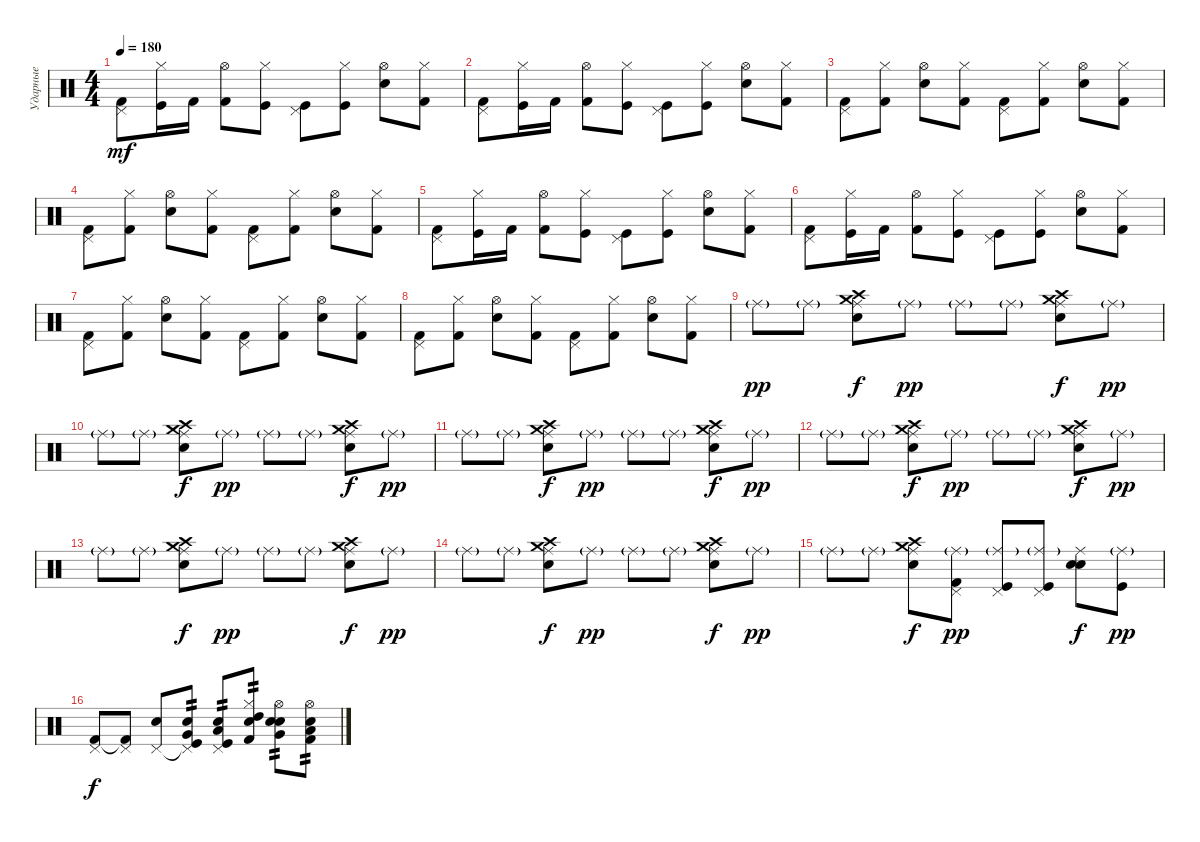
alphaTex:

\track ("Ударные" "Ударные") {instrument percussion}
\staff {score}
\articulation defaults
\ts (4 4)
\tempo 180
\clef neutral
\ks c
("Kick (hit) 2" "Pedal Hi-Hat (hit)").8{dy mf} ("Hi-Hat (closed)" "Kick (hit)").16 "Kick (hit) 2".16 ("Kick (hit) 2" "Hi-Hat (open)").8 ("Kick (hit)" "Hi-Hat (closed)").8 ("Pedal Hi-Hat (hit)" "Kick (hit)").8 ("Hi-Hat (closed)" "Kick (hit)").8 ("Hi-Hat (open)" "Snare (hit) 2").8 ("Kick (hit) 2" "Hi-Hat (closed)").8 |
("Kick (hit) 2" "Pedal Hi-Hat (hit)").8 ("Hi-Hat (closed)" "Kick (hit)").16 "Kick (hit) 2".16 ("Kick (hit) 2" "Hi-Hat (open)").8 ("Kick (hit)" "Hi-Hat (closed)").8 ("Pedal Hi-Hat (hit)" "Kick (hit)").8 ("Hi-Hat (closed)" "Kick (hit)").8 ("Hi-Hat (open)" "Snare (hit) 2").8 ("Kick (hit) 2" "Hi-Hat (closed)").8 |
("Kick (hit) 2" "Pedal Hi-Hat (hit)").8 ("Hi-Hat (closed)" "Kick (hit) 2").8 ("Snare (hit) 2" "Hi-Hat (open)").8 ("Kick (hit) 2" "Hi-Hat (closed)").8 ("Kick (hit) 2" "Pedal Hi-Hat (hit)").8 ("Hi-Hat (closed)" "Kick (hit) 2").8 ("Snare (hit) 2" "Hi-Hat (open)").8 ("Hi-Hat (closed)" "Kick (hit) 2").8 |
("Pedal Hi-Hat (hit)" "Kick (hit) 2").8 ("Hi-Hat (closed)" "Kick (hit) 2").8 ("Hi-Hat (open)" "Snare (hit) 2").8 ("Hi-Hat (closed)" "Kick (hit) 2").8 ("Kick (hit) 2" "Pedal Hi-Hat (hit)").8 ("Hi-Hat (closed)" "Kick (hit) 2").8 ("Hi-Hat (open)" "Snare (hit) 2").8 ("Kick (hit) 2" "Hi-Hat (closed)").8 |
("Kick (hit) 2" "Pedal Hi-Hat (hit)").8 ("Hi-Hat (closed)" "Kick (hit)").16 "Kick (hit) 2".16 ("Kick (hit) 2" "Hi-Hat (open)").8 ("Kick (hit)" "Hi-Hat (closed)").8 ("Pedal Hi-Hat (hit)" "Kick (hit)").8 ("Hi-Hat (closed)" "Kick (hit)").8 ("Hi-Hat (open)" "Snare (hit) 2").8 ("Kick (hit) 2" "Hi-Hat (closed)").8 |
("Kick (hit) 2" "Pedal Hi-Hat (hit)").8 ("Hi-Hat (closed)" "Kick (hit)").16 "Kick (hit) 2".16 ("Kick (hit) 2" "Hi-Hat (open)").8 ("Kick (hit)" "Hi-Hat (closed)").8 ("Pedal Hi-Hat (hit)" "Kick (hit)").8 ("Hi-Hat (closed)" "Kick (hit)").8 ("Hi-Hat (open)" "Snare (hit) 2").8 ("Kick (hit) 2" "Hi-Hat (closed)").8 |
("Kick (hit) 2" "Pedal Hi-Hat (hit)").8 ("Hi-Hat (closed)" "Kick (hit) 2").8 ("Snare (hit) 2" "Hi-Hat (open)").8 ("Kick (hit) 2" "Hi-Hat (closed)").8 ("Kick (hit) 2" "Pedal Hi-Hat (hit)").8 ("Hi-Hat (closed)" "Kick (hit) 2").8 ("Snare (hit) 2" "Hi-Hat (open)").8 ("Hi-Hat (closed)" "Kick (hit) 2").8 |
("Pedal Hi-Hat (hit)" "Kick (hit) 2").8 ("Hi-Hat (closed)" "Kick (hit) 2").8 ("Hi-Hat (open)" "Snare (hit) 2").8 ("Hi-Hat (closed)" "Kick (hit) 2").8 ("Kick (hit) 2" "Pedal Hi-Hat (hit)").8 ("Hi-Hat (closed)" "Kick (hit) 2").8 ("Hi-Hat (open)" "Snare (hit) 2").8 ("Kick (hit) 2" "Hi-Hat (closed)").8 |
"Ride (middle)"{g}.8{dy pp} "Ride (middle)"{g}.8 ("Ride (middle)" "Electric Snare (hit)" "Crash medium (hit)" "Crash high (hit)").8{dy f} "Ride (middle)"{g}.8{dy pp} "Ride (middle)"{g}.8 "Ride (middle)"{g}.8 ("Ride (middle)" "Electric Snare (hit)" "Crash medium (hit)" "Crash high (hit)").8{dy f} "Ride (middle)"{g}.8{dy pp} |
"Ride (middle)"{g}.8 "Ride (middle)"{g}.8 ("Ride (middle)" "Electric Snare (hit)" "Crash medium (hit)" "Crash high (hit)").8{dy f} "Ride (middle)"{g}.8{dy pp} "Ride (middle)"{g}.8 "Ride (middle)"{g}.8 ("Ride (middle)" "Electric Snare (hit)" "Crash medium (hit)" "Crash high (hit)").8{dy f} "Ride (middle)"{g}.8{dy pp} |
"Ride (middle)"{g}.8 "Ride (middle)"{g}.8 ("Ride (middle)" "Electric Snare (hit)" "Crash medium (hit)" "Crash high (hit)").8{dy f} "Ride (middle)"{g}.8{dy pp} "Ride (middle)"{g}.8 "Ride (middle)"{g}.8 ("Ride (middle)" "Electric Snare (hit)" "Crash medium (hit)" "Crash high (hit)").8{dy f} "Ride (middle)"{g}.8{dy pp} |
"Ride (middle)"{g}.8 "Ride (middle)"{g}.8 ("Ride (middle)" "Electric Snare (hit)" "Crash medium (hit)" "Crash high (hit)").8{dy f} "Ride (middle)"{g}.8{dy pp} "Ride (middle)"{g}.8 "Ride (middle)"{g}.8 ("Ride (middle)" "Electric Snare (hit)" "Crash medium (hit)" "Crash high (hit)").8{dy f} "Ride (middle)"{g}.8{dy pp} |
"Ride (middle)"{g}.8 "Ride (middle)"{g}.8 ("Ride (middle)" "Electric Snare (hit)" "Crash medium (hit)" "Crash high (hit)").8{dy f} "Ride (middle)"{g}.8{dy pp} "Ride (middle)"{g}.8 "Ride (middle)"{g}.8 ("Ride (middle)" "Electric Snare (hit)" "Crash medium (hit)" "Crash high (hit)").8{dy f} "Ride (middle)"{g}.8{dy pp} |
"Ride (middle)"{g}.8 "Ride (middle)"{g}.8 ("Ride (middle)" "Electric Snare (hit)" "Crash medium (hit)" "Crash high (hit)").8{dy f} "Ride (middle)"{g}.8{dy pp} "Ride (middle)"{g}.8 "Ride (middle)"{g}.8 ("Ride (middle)" "Electric Snare (hit)" "Crash medium (hit)" "Crash high (hit)").8{dy f} "Ride (middle)"{g}.8{dy pp} |
"Ride (middle)"{g}.8 "Ride (middle)"{g}.8 ("Ride (middle)" "Electric Snare (hit)" "Crash medium (hit)" "Crash high (hit)").8{dy f} ("Ride (middle)"{g} "Kick (hit) 2" "Pedal Hi-Hat (hit)").8{dy pp} ("Ride (middle)"{g} "Kick (hit)" "Pedal Hi-Hat (hit)").8 ("Ride (middle)"{g} "Kick (hit)" "Pedal Hi-Hat (hit)").8 ("Ride (middle)" "Electric Snare (hit)" "Snare (hit) 2").8{dy f} ("Ride (middle)"{g} "Kick (hit)").8{dy pp} |
("Kick (hit) 2" "Pedal Hi-Hat (hit)").8{dy f} ("Kick (hit) 2"{t} "Pedal Hi-Hat (hit)").8 ("Snare (hit) 2" "Pedal Hi-Hat (hit)").8 ("Very Low Tom (hit)" "Kick (hit)"{t} "Pedal Hi-Hat (hit)" "Snare (hit) 2").8{tp 2} ("Low Tom (hit)" "Kick (hit)" "Pedal Hi-Hat (hit)" "Snare (hit) 2").8{tp 2} ("High Tom (hit)" "Kick (hit) 2" "Hi-Hat (closed)" "Electric Snare (hit)").8{tp 2} ("Very Low Tom (hit)" "Snare (hit) 2" "Hi-Hat (open)" "Electric Snare (hit)").8{tp 2} ("Low Tom (hit)" "Kick (hit) 2" "Hi-Hat (open)" "Snare (hit) 2").8{tp 2}
